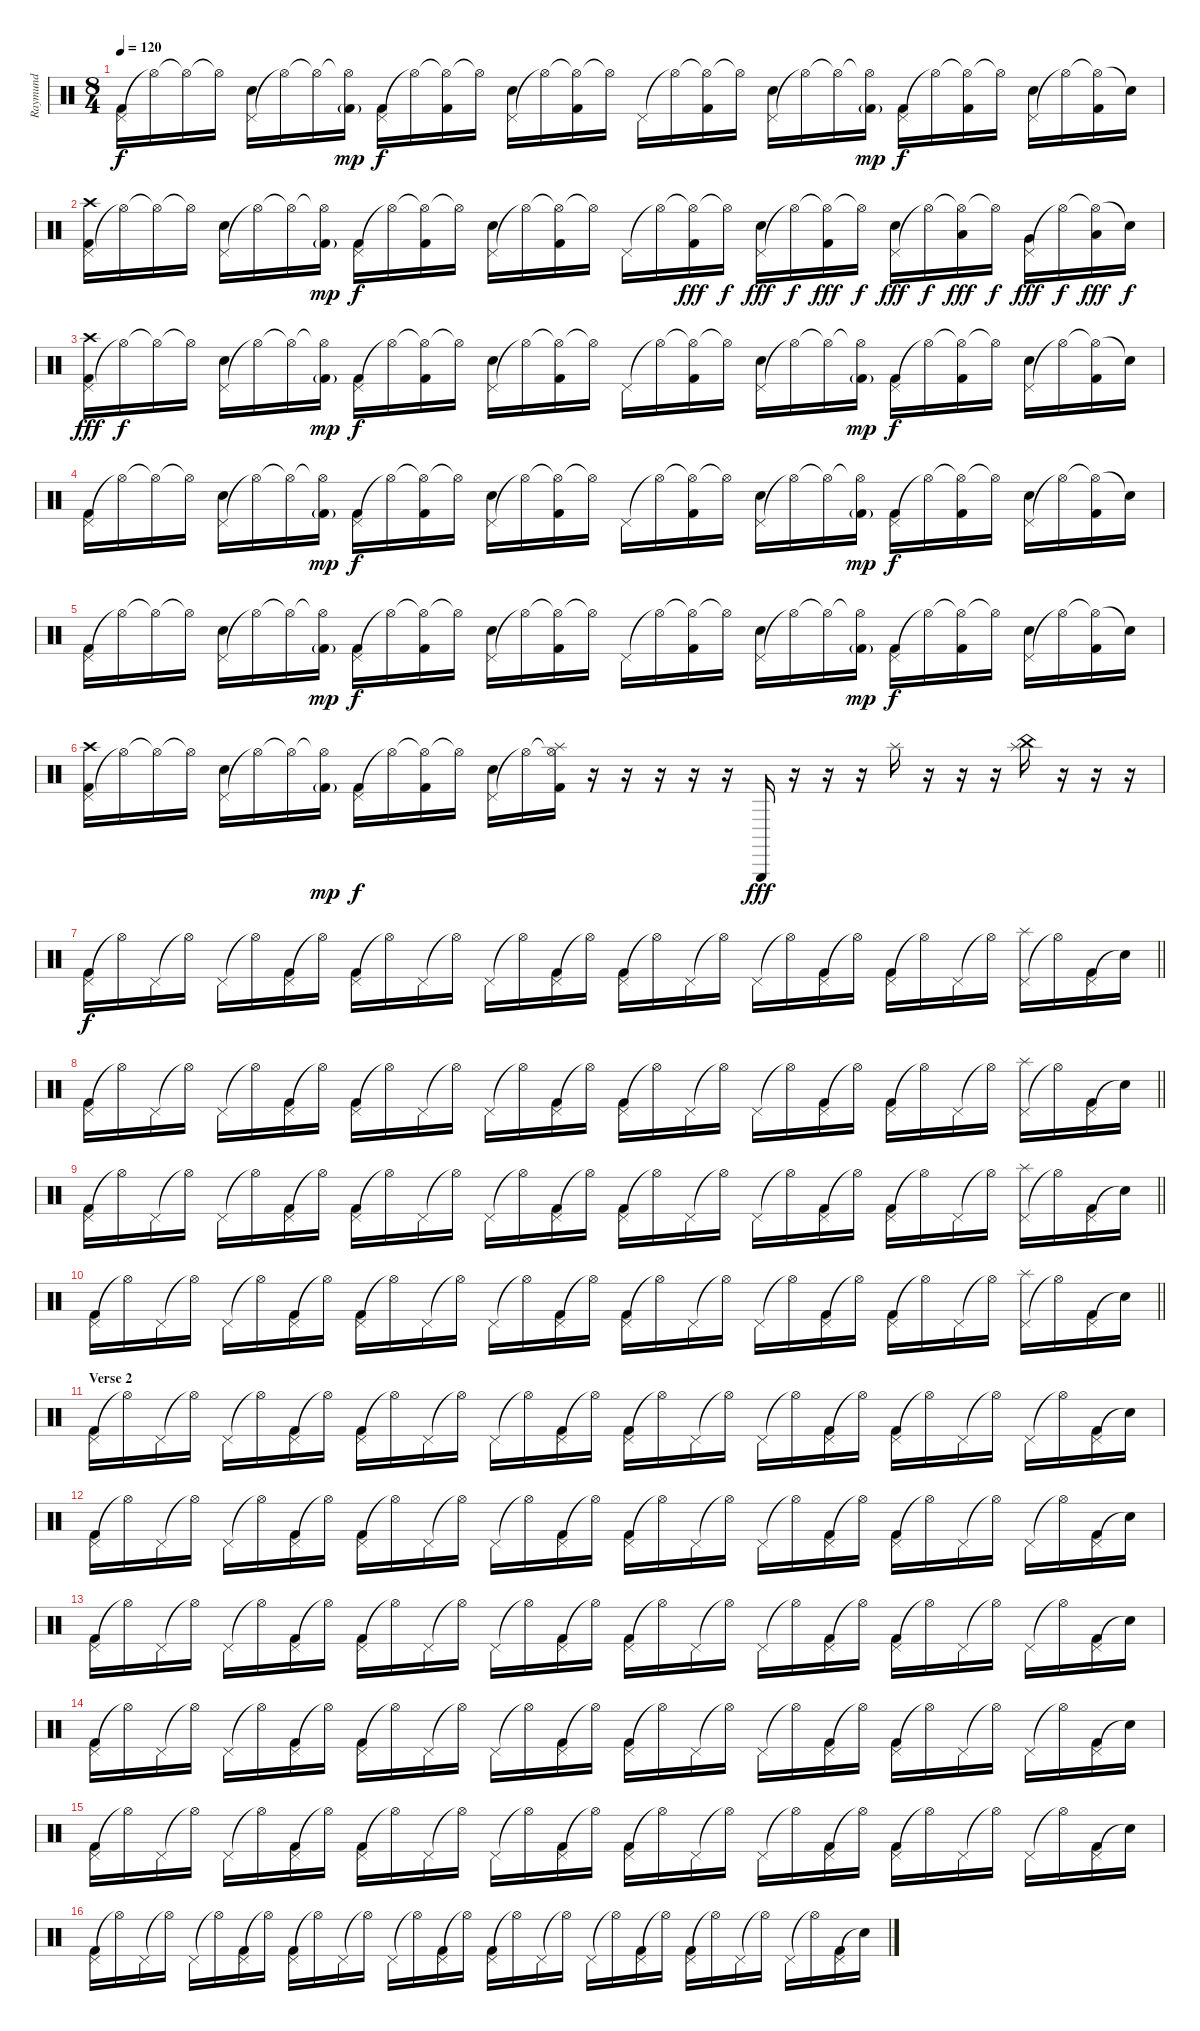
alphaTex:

\track ("Raymund" "Raymund") {instrument percussion}
\staff {score}
\articulation defaults
\ts (8 4)
\tempo 120
\clef neutral
\ks c
("Pedal Hi-Hat (hit)" "Kick (hit) 2").16{dy f} "Hi-Hat (open)"{t}.16 "Hi-Hat (open)"{t}.16 "Hi-Hat (open)"{t}.16 ("Pedal Hi-Hat (hit)" "Snare (hit) 2").16 "Hi-Hat (open)"{t}.16 "Hi-Hat (open)"{t}.16 ("Hi-Hat (open)"{t} "Kick (hit) 2"{g}).16{dy mp} ("Pedal Hi-Hat (hit)" "Kick (hit) 2").16{dy f} "Hi-Hat (open)"{t}.16 ("Hi-Hat (open)"{t} "Kick (hit) 2").16 "Hi-Hat (open)"{t}.16 ("Pedal Hi-Hat (hit)" "Snare (hit) 2").16 "Hi-Hat (open)"{t}.16 ("Hi-Hat (open)"{t} "Kick (hit) 2").16 "Hi-Hat (open)"{t}.16 "Pedal Hi-Hat (hit)".16 "Hi-Hat (open)"{t}.16 ("Hi-Hat (open)"{t} "Kick (hit) 2").16 "Hi-Hat (open)"{t}.16 ("Pedal Hi-Hat (hit)" "Snare (hit) 2").16 "Hi-Hat (open)"{t}.16 "Hi-Hat (open)"{t}.16 ("Hi-Hat (open)"{t} "Kick (hit) 2"{g}).16{dy mp} ("Pedal Hi-Hat (hit)" "Kick (hit) 2").16{dy f} "Hi-Hat (open)"{t}.16 ("Hi-Hat (open)"{t} "Kick (hit) 2").16 "Hi-Hat (open)"{t}.16 ("Pedal Hi-Hat (hit)" "Snare (hit) 2").16 "Hi-Hat (open)"{t}.16 ("Hi-Hat (open)"{t} "Kick (hit) 2").16 "Snare (hit)"{t}.16 |
("Pedal Hi-Hat (hit)" "Kick (hit) 2" "Crash high (hit)").16 "Hi-Hat (open)"{t}.16 "Hi-Hat (open)"{t}.16 "Hi-Hat (open)"{t}.16 ("Pedal Hi-Hat (hit)" "Snare (hit) 2").16 "Hi-Hat (open)"{t}.16 "Hi-Hat (open)"{t}.16 ("Hi-Hat (open)"{t} "Kick (hit) 2"{g}).16{dy mp} ("Pedal Hi-Hat (hit)" "Kick (hit) 2").16{dy f} "Hi-Hat (open)"{t}.16 ("Hi-Hat (open)"{t} "Kick (hit) 2").16 "Hi-Hat (open)"{t}.16 ("Pedal Hi-Hat (hit)" "Snare (hit) 2").16 "Hi-Hat (open)"{t}.16 ("Hi-Hat (open)"{t} "Kick (hit) 2").16 "Hi-Hat (open)"{t}.16 "Pedal Hi-Hat (hit)".16 "Hi-Hat (open)"{t}.16 ("Hi-Hat (open)"{t} "Kick (hit) 2").16{dy fff} "Hi-Hat (open)"{t}.16{dy f} ("Pedal Hi-Hat (hit)" "Snare (hit) 2").16{dy fff} "Hi-Hat (open)"{t}.16{dy f} ("Hi-Hat (open)"{t} "Kick (hit) 2").16{dy fff} "Hi-Hat (open)"{t}.16{dy f} ("Pedal Hi-Hat (hit)" "Snare (hit) 2").16{dy fff} "Hi-Hat (open)"{t}.16{dy f} ("Hi-Hat (open)"{t} "Low Tom (hit)").16{dy fff} "Hi-Hat (open)"{t}.16{dy f} ("Pedal Hi-Hat (hit)" "Very Low Tom (hit)").16{dy fff} "Hi-Hat (open)"{t}.16{dy f} ("Hi-Hat (open)"{t} "Low Tom (hit)").16{dy fff} "Snare (hit)"{t}.16{dy f} |
("Pedal Hi-Hat (hit)" "Kick (hit) 2" "Crash high (hit)").16{dy fff} "Hi-Hat (open)"{t}.16{dy f} "Hi-Hat (open)"{t}.16 "Hi-Hat (open)"{t}.16 ("Pedal Hi-Hat (hit)" "Snare (hit) 2").16 "Hi-Hat (open)"{t}.16 "Hi-Hat (open)"{t}.16 ("Hi-Hat (open)"{t} "Kick (hit) 2"{g}).16{dy mp} ("Pedal Hi-Hat (hit)" "Kick (hit) 2").16{dy f} "Hi-Hat (open)"{t}.16 ("Hi-Hat (open)"{t} "Kick (hit) 2").16 "Hi-Hat (open)"{t}.16 ("Pedal Hi-Hat (hit)" "Snare (hit) 2").16 "Hi-Hat (open)"{t}.16 ("Hi-Hat (open)"{t} "Kick (hit) 2").16 "Hi-Hat (open)"{t}.16 "Pedal Hi-Hat (hit)".16 "Hi-Hat (open)"{t}.16 ("Hi-Hat (open)"{t} "Kick (hit) 2").16 "Hi-Hat (open)"{t}.16 ("Pedal Hi-Hat (hit)" "Snare (hit) 2").16 "Hi-Hat (open)"{t}.16 "Hi-Hat (open)"{t}.16 ("Hi-Hat (open)"{t} "Kick (hit) 2"{g}).16{dy mp} ("Pedal Hi-Hat (hit)" "Kick (hit) 2").16{dy f} "Hi-Hat (open)"{t}.16 ("Hi-Hat (open)"{t} "Kick (hit) 2").16 "Hi-Hat (open)"{t}.16 ("Pedal Hi-Hat (hit)" "Snare (hit) 2").16 "Hi-Hat (open)"{t}.16 ("Hi-Hat (open)"{t} "Kick (hit) 2").16 "Snare (hit)"{t}.16 |
("Pedal Hi-Hat (hit)" "Kick (hit) 2").16 "Hi-Hat (open)"{t}.16 "Hi-Hat (open)"{t}.16 "Hi-Hat (open)"{t}.16 ("Pedal Hi-Hat (hit)" "Snare (hit) 2").16 "Hi-Hat (open)"{t}.16 "Hi-Hat (open)"{t}.16 ("Hi-Hat (open)"{t} "Kick (hit) 2"{g}).16{dy mp} ("Pedal Hi-Hat (hit)" "Kick (hit) 2").16{dy f} "Hi-Hat (open)"{t}.16 ("Hi-Hat (open)"{t} "Kick (hit) 2").16 "Hi-Hat (open)"{t}.16 ("Pedal Hi-Hat (hit)" "Snare (hit) 2").16 "Hi-Hat (open)"{t}.16 ("Hi-Hat (open)"{t} "Kick (hit) 2").16 "Hi-Hat (open)"{t}.16 "Pedal Hi-Hat (hit)".16 "Hi-Hat (open)"{t}.16 ("Hi-Hat (open)"{t} "Kick (hit) 2").16 "Hi-Hat (open)"{t}.16 ("Pedal Hi-Hat (hit)" "Snare (hit) 2").16 "Hi-Hat (open)"{t}.16 "Hi-Hat (open)"{t}.16 ("Hi-Hat (open)"{t} "Kick (hit) 2"{g}).16{dy mp} ("Pedal Hi-Hat (hit)" "Kick (hit) 2").16{dy f} "Hi-Hat (open)"{t}.16 ("Hi-Hat (open)"{t} "Kick (hit) 2").16 "Hi-Hat (open)"{t}.16 ("Pedal Hi-Hat (hit)" "Snare (hit) 2").16 "Hi-Hat (open)"{t}.16 ("Hi-Hat (open)"{t} "Kick (hit) 2").16 "Snare (hit)"{t}.16 |
("Pedal Hi-Hat (hit)" "Kick (hit) 2").16 "Hi-Hat (open)"{t}.16 "Hi-Hat (open)"{t}.16 "Hi-Hat (open)"{t}.16 ("Pedal Hi-Hat (hit)" "Snare (hit) 2").16 "Hi-Hat (open)"{t}.16 "Hi-Hat (open)"{t}.16 ("Hi-Hat (open)"{t} "Kick (hit) 2"{g}).16{dy mp} ("Pedal Hi-Hat (hit)" "Kick (hit) 2").16{dy f} "Hi-Hat (open)"{t}.16 ("Hi-Hat (open)"{t} "Kick (hit) 2").16 "Hi-Hat (open)"{t}.16 ("Pedal Hi-Hat (hit)" "Snare (hit) 2").16 "Hi-Hat (open)"{t}.16 ("Hi-Hat (open)"{t} "Kick (hit) 2").16 "Hi-Hat (open)"{t}.16 "Pedal Hi-Hat (hit)".16 "Hi-Hat (open)"{t}.16 ("Hi-Hat (open)"{t} "Kick (hit) 2").16 "Hi-Hat (open)"{t}.16 ("Pedal Hi-Hat (hit)" "Snare (hit) 2").16 "Hi-Hat (open)"{t}.16 "Hi-Hat (open)"{t}.16 ("Hi-Hat (open)"{t} "Kick (hit) 2"{g}).16{dy mp} ("Pedal Hi-Hat (hit)" "Kick (hit) 2").16{dy f} "Hi-Hat (open)"{t}.16 ("Hi-Hat (open)"{t} "Kick (hit) 2").16 "Hi-Hat (open)"{t}.16 ("Pedal Hi-Hat (hit)" "Snare (hit) 2").16 "Hi-Hat (open)"{t}.16 ("Hi-Hat (open)"{t} "Kick (hit) 2").16 "Snare (hit)"{t}.16 |
("Pedal Hi-Hat (hit)" "Kick (hit) 2" "Crash high (hit)").16 "Hi-Hat (open)"{t}.16 "Hi-Hat (open)"{t}.16 "Hi-Hat (open)"{t}.16 ("Pedal Hi-Hat (hit)" "Snare (hit) 2").16 "Hi-Hat (open)"{t}.16 "Hi-Hat (open)"{t}.16 ("Hi-Hat (open)"{t} "Kick (hit) 2"{g}).16{dy mp} ("Pedal Hi-Hat (hit)" "Kick (hit) 2").16{dy f} "Hi-Hat (open)"{t}.16 ("Hi-Hat (open)"{t} "Kick (hit) 2").16 "Hi-Hat (open)"{t}.16 ("Pedal Hi-Hat (hit)" "Snare (hit) 2").16 "Hi-Hat (open)"{t}.16 ("Hi-Hat (open)"{t} "Kick (hit) 2" "Splash (hit)").16 r.16 r.16 r.16 r.16 r.16 "Triangle (hit)".16{dy fff} r.16 r.16 r.16 "Splash (hit)".16 r.16 r.16 r.16 ("Splash (hit)" "China (hit)").16 r.16 r.16 r.16 |
\barLineRight lightlight
("Pedal Hi-Hat (hit)" "Kick (hit) 2").16{dy f} "Hi-Hat (open)"{t}.16 "Pedal Hi-Hat (hit)".16 "Hi-Hat (open)"{t}.16 "Pedal Hi-Hat (hit)".16 "Hi-Hat (open)"{t}.16 ("Pedal Hi-Hat (hit)" "Kick (hit) 2").16 "Hi-Hat (open)"{t}.16 ("Pedal Hi-Hat (hit)" "Kick (hit) 2").16 "Hi-Hat (open)"{t}.16 "Pedal Hi-Hat (hit)".16 "Hi-Hat (open)"{t}.16 "Pedal Hi-Hat (hit)".16 "Hi-Hat (open)"{t}.16 ("Pedal Hi-Hat (hit)" "Kick (hit) 2").16 "Hi-Hat (open)"{t}.16 ("Pedal Hi-Hat (hit)" "Kick (hit) 2").16 "Hi-Hat (open)"{t}.16 "Pedal Hi-Hat (hit)".16 "Hi-Hat (open)"{t}.16 "Pedal Hi-Hat (hit)".16 "Hi-Hat (open)"{t}.16 ("Pedal Hi-Hat (hit)" "Kick (hit) 2").16 "Hi-Hat (open)"{t}.16 ("Pedal Hi-Hat (hit)" "Kick (hit) 2").16 "Hi-Hat (open)"{t}.16 "Pedal Hi-Hat (hit)".16 "Hi-Hat (open)"{t}.16 ("Pedal Hi-Hat (hit)" "Splash (hit)").16 "Hi-Hat (open)"{t}.16 ("Pedal Hi-Hat (hit)" "Kick (hit) 2").16 "Snare (hit)"{t}.16 |
\barLineRight lightlight
("Pedal Hi-Hat (hit)" "Kick (hit) 2").16 "Hi-Hat (open)"{t}.16 "Pedal Hi-Hat (hit)".16 "Hi-Hat (open)"{t}.16 "Pedal Hi-Hat (hit)".16 "Hi-Hat (open)"{t}.16 ("Pedal Hi-Hat (hit)" "Kick (hit) 2").16 "Hi-Hat (open)"{t}.16 ("Pedal Hi-Hat (hit)" "Kick (hit) 2").16 "Hi-Hat (open)"{t}.16 "Pedal Hi-Hat (hit)".16 "Hi-Hat (open)"{t}.16 "Pedal Hi-Hat (hit)".16 "Hi-Hat (open)"{t}.16 ("Pedal Hi-Hat (hit)" "Kick (hit) 2").16 "Hi-Hat (open)"{t}.16 ("Pedal Hi-Hat (hit)" "Kick (hit) 2").16 "Hi-Hat (open)"{t}.16 "Pedal Hi-Hat (hit)".16 "Hi-Hat (open)"{t}.16 "Pedal Hi-Hat (hit)".16 "Hi-Hat (open)"{t}.16 ("Pedal Hi-Hat (hit)" "Kick (hit) 2").16 "Hi-Hat (open)"{t}.16 ("Pedal Hi-Hat (hit)" "Kick (hit) 2").16 "Hi-Hat (open)"{t}.16 "Pedal Hi-Hat (hit)".16 "Hi-Hat (open)"{t}.16 ("Pedal Hi-Hat (hit)" "Splash (hit)").16 "Hi-Hat (open)"{t}.16 ("Pedal Hi-Hat (hit)" "Kick (hit) 2").16 "Snare (hit)"{t}.16 |
\barLineRight lightlight
("Pedal Hi-Hat (hit)" "Kick (hit) 2").16 "Hi-Hat (open)"{t}.16 "Pedal Hi-Hat (hit)".16 "Hi-Hat (open)"{t}.16 "Pedal Hi-Hat (hit)".16 "Hi-Hat (open)"{t}.16 ("Pedal Hi-Hat (hit)" "Kick (hit) 2").16 "Hi-Hat (open)"{t}.16 ("Pedal Hi-Hat (hit)" "Kick (hit) 2").16 "Hi-Hat (open)"{t}.16 "Pedal Hi-Hat (hit)".16 "Hi-Hat (open)"{t}.16 "Pedal Hi-Hat (hit)".16 "Hi-Hat (open)"{t}.16 ("Pedal Hi-Hat (hit)" "Kick (hit) 2").16 "Hi-Hat (open)"{t}.16 ("Pedal Hi-Hat (hit)" "Kick (hit) 2").16 "Hi-Hat (open)"{t}.16 "Pedal Hi-Hat (hit)".16 "Hi-Hat (open)"{t}.16 "Pedal Hi-Hat (hit)".16 "Hi-Hat (open)"{t}.16 ("Pedal Hi-Hat (hit)" "Kick (hit) 2").16 "Hi-Hat (open)"{t}.16 ("Pedal Hi-Hat (hit)" "Kick (hit) 2").16 "Hi-Hat (open)"{t}.16 "Pedal Hi-Hat (hit)".16 "Hi-Hat (open)"{t}.16 ("Pedal Hi-Hat (hit)" "Splash (hit)").16 "Hi-Hat (open)"{t}.16 ("Pedal Hi-Hat (hit)" "Kick (hit) 2").16 "Snare (hit)"{t}.16 |
\barLineRight lightlight
("Pedal Hi-Hat (hit)" "Kick (hit) 2").16 "Hi-Hat (open)"{t}.16 "Pedal Hi-Hat (hit)".16 "Hi-Hat (open)"{t}.16 "Pedal Hi-Hat (hit)".16 "Hi-Hat (open)"{t}.16 ("Pedal Hi-Hat (hit)" "Kick (hit) 2").16 "Hi-Hat (open)"{t}.16 ("Pedal Hi-Hat (hit)" "Kick (hit) 2").16 "Hi-Hat (open)"{t}.16 "Pedal Hi-Hat (hit)".16 "Hi-Hat (open)"{t}.16 "Pedal Hi-Hat (hit)".16 "Hi-Hat (open)"{t}.16 ("Pedal Hi-Hat (hit)" "Kick (hit) 2").16 "Hi-Hat (open)"{t}.16 ("Pedal Hi-Hat (hit)" "Kick (hit) 2").16 "Hi-Hat (open)"{t}.16 "Pedal Hi-Hat (hit)".16 "Hi-Hat (open)"{t}.16 "Pedal Hi-Hat (hit)".16 "Hi-Hat (open)"{t}.16 ("Pedal Hi-Hat (hit)" "Kick (hit) 2").16 "Hi-Hat (open)"{t}.16 ("Pedal Hi-Hat (hit)" "Kick (hit) 2").16 "Hi-Hat (open)"{t}.16 "Pedal Hi-Hat (hit)".16 "Hi-Hat (open)"{t}.16 ("Pedal Hi-Hat (hit)" "Splash (hit)").16 "Hi-Hat (open)"{t}.16 ("Pedal Hi-Hat (hit)" "Kick (hit) 2").16 "Snare (hit)"{t}.16 |
\section ("" "Verse 2")
("Pedal Hi-Hat (hit)" "Kick (hit) 2").16 "Hi-Hat (open)"{t}.16 "Pedal Hi-Hat (hit)".16 "Hi-Hat (open)"{t}.16 "Pedal Hi-Hat (hit)".16 "Hi-Hat (open)"{t}.16 ("Pedal Hi-Hat (hit)" "Kick (hit) 2").16 "Hi-Hat (open)"{t}.16 ("Pedal Hi-Hat (hit)" "Kick (hit) 2").16 "Hi-Hat (open)"{t}.16 "Pedal Hi-Hat (hit)".16 "Hi-Hat (open)"{t}.16 "Pedal Hi-Hat (hit)".16 "Hi-Hat (open)"{t}.16 ("Pedal Hi-Hat (hit)" "Kick (hit) 2").16 "Hi-Hat (open)"{t}.16 ("Pedal Hi-Hat (hit)" "Kick (hit) 2").16 "Hi-Hat (open)"{t}.16 "Pedal Hi-Hat (hit)".16 "Hi-Hat (open)"{t}.16 "Pedal Hi-Hat (hit)".16 "Hi-Hat (open)"{t}.16 ("Pedal Hi-Hat (hit)" "Kick (hit) 2").16 "Hi-Hat (open)"{t}.16 ("Pedal Hi-Hat (hit)" "Kick (hit) 2").16 "Hi-Hat (open)"{t}.16 "Pedal Hi-Hat (hit)".16 "Hi-Hat (open)"{t}.16 "Pedal Hi-Hat (hit)".16 "Hi-Hat (open)"{t}.16 ("Pedal Hi-Hat (hit)" "Kick (hit) 2").16 "Snare (hit)"{t}.16 |
("Pedal Hi-Hat (hit)" "Kick (hit) 2").16 "Hi-Hat (open)"{t}.16 "Pedal Hi-Hat (hit)".16 "Hi-Hat (open)"{t}.16 "Pedal Hi-Hat (hit)".16 "Hi-Hat (open)"{t}.16 ("Pedal Hi-Hat (hit)" "Kick (hit) 2").16 "Hi-Hat (open)"{t}.16 ("Pedal Hi-Hat (hit)" "Kick (hit) 2").16 "Hi-Hat (open)"{t}.16 "Pedal Hi-Hat (hit)".16 "Hi-Hat (open)"{t}.16 "Pedal Hi-Hat (hit)".16 "Hi-Hat (open)"{t}.16 ("Pedal Hi-Hat (hit)" "Kick (hit) 2").16 "Hi-Hat (open)"{t}.16 ("Pedal Hi-Hat (hit)" "Kick (hit) 2").16 "Hi-Hat (open)"{t}.16 "Pedal Hi-Hat (hit)".16 "Hi-Hat (open)"{t}.16 "Pedal Hi-Hat (hit)".16 "Hi-Hat (open)"{t}.16 ("Pedal Hi-Hat (hit)" "Kick (hit) 2").16 "Hi-Hat (open)"{t}.16 ("Pedal Hi-Hat (hit)" "Kick (hit) 2").16 "Hi-Hat (open)"{t}.16 "Pedal Hi-Hat (hit)".16 "Hi-Hat (open)"{t}.16 "Pedal Hi-Hat (hit)".16 "Hi-Hat (open)"{t}.16 ("Pedal Hi-Hat (hit)" "Kick (hit) 2").16 "Snare (hit)"{t}.16 |
("Pedal Hi-Hat (hit)" "Kick (hit) 2").16 "Hi-Hat (open)"{t}.16 "Pedal Hi-Hat (hit)".16 "Hi-Hat (open)"{t}.16 "Pedal Hi-Hat (hit)".16 "Hi-Hat (open)"{t}.16 ("Pedal Hi-Hat (hit)" "Kick (hit) 2").16 "Hi-Hat (open)"{t}.16 ("Pedal Hi-Hat (hit)" "Kick (hit) 2").16 "Hi-Hat (open)"{t}.16 "Pedal Hi-Hat (hit)".16 "Hi-Hat (open)"{t}.16 "Pedal Hi-Hat (hit)".16 "Hi-Hat (open)"{t}.16 ("Pedal Hi-Hat (hit)" "Kick (hit) 2").16 "Hi-Hat (open)"{t}.16 ("Pedal Hi-Hat (hit)" "Kick (hit) 2").16 "Hi-Hat (open)"{t}.16 "Pedal Hi-Hat (hit)".16 "Hi-Hat (open)"{t}.16 "Pedal Hi-Hat (hit)".16 "Hi-Hat (open)"{t}.16 ("Pedal Hi-Hat (hit)" "Kick (hit) 2").16 "Hi-Hat (open)"{t}.16 ("Pedal Hi-Hat (hit)" "Kick (hit) 2").16 "Hi-Hat (open)"{t}.16 "Pedal Hi-Hat (hit)".16 "Hi-Hat (open)"{t}.16 "Pedal Hi-Hat (hit)".16 "Hi-Hat (open)"{t}.16 ("Pedal Hi-Hat (hit)" "Kick (hit) 2").16 "Snare (hit)"{t}.16 |
("Pedal Hi-Hat (hit)" "Kick (hit) 2").16 "Hi-Hat (open)"{t}.16 "Pedal Hi-Hat (hit)".16 "Hi-Hat (open)"{t}.16 "Pedal Hi-Hat (hit)".16 "Hi-Hat (open)"{t}.16 ("Pedal Hi-Hat (hit)" "Kick (hit) 2").16 "Hi-Hat (open)"{t}.16 ("Pedal Hi-Hat (hit)" "Kick (hit) 2").16 "Hi-Hat (open)"{t}.16 "Pedal Hi-Hat (hit)".16 "Hi-Hat (open)"{t}.16 "Pedal Hi-Hat (hit)".16 "Hi-Hat (open)"{t}.16 ("Pedal Hi-Hat (hit)" "Kick (hit) 2").16 "Hi-Hat (open)"{t}.16 ("Pedal Hi-Hat (hit)" "Kick (hit) 2").16 "Hi-Hat (open)"{t}.16 "Pedal Hi-Hat (hit)".16 "Hi-Hat (open)"{t}.16 "Pedal Hi-Hat (hit)".16 "Hi-Hat (open)"{t}.16 ("Pedal Hi-Hat (hit)" "Kick (hit) 2").16 "Hi-Hat (open)"{t}.16 ("Pedal Hi-Hat (hit)" "Kick (hit) 2").16 "Hi-Hat (open)"{t}.16 "Pedal Hi-Hat (hit)".16 "Hi-Hat (open)"{t}.16 "Pedal Hi-Hat (hit)".16 "Hi-Hat (open)"{t}.16 ("Pedal Hi-Hat (hit)" "Kick (hit) 2").16 "Snare (hit)"{t}.16 |
("Pedal Hi-Hat (hit)" "Kick (hit) 2").16 "Hi-Hat (open)"{t}.16 "Pedal Hi-Hat (hit)".16 "Hi-Hat (open)"{t}.16 "Pedal Hi-Hat (hit)".16 "Hi-Hat (open)"{t}.16 ("Pedal Hi-Hat (hit)" "Kick (hit) 2").16 "Hi-Hat (open)"{t}.16 ("Pedal Hi-Hat (hit)" "Kick (hit) 2").16 "Hi-Hat (open)"{t}.16 "Pedal Hi-Hat (hit)".16 "Hi-Hat (open)"{t}.16 "Pedal Hi-Hat (hit)".16 "Hi-Hat (open)"{t}.16 ("Pedal Hi-Hat (hit)" "Kick (hit) 2").16 "Hi-Hat (open)"{t}.16 ("Pedal Hi-Hat (hit)" "Kick (hit) 2").16 "Hi-Hat (open)"{t}.16 "Pedal Hi-Hat (hit)".16 "Hi-Hat (open)"{t}.16 "Pedal Hi-Hat (hit)".16 "Hi-Hat (open)"{t}.16 ("Pedal Hi-Hat (hit)" "Kick (hit) 2").16 "Hi-Hat (open)"{t}.16 ("Pedal Hi-Hat (hit)" "Kick (hit) 2").16 "Hi-Hat (open)"{t}.16 "Pedal Hi-Hat (hit)".16 "Hi-Hat (open)"{t}.16 "Pedal Hi-Hat (hit)".16 "Hi-Hat (open)"{t}.16 ("Pedal Hi-Hat (hit)" "Kick (hit) 2").16 "Snare (hit)"{t}.16 |
("Pedal Hi-Hat (hit)" "Kick (hit) 2").16 "Hi-Hat (open)"{t}.16 "Pedal Hi-Hat (hit)".16 "Hi-Hat (open)"{t}.16 "Pedal Hi-Hat (hit)".16 "Hi-Hat (open)"{t}.16 ("Pedal Hi-Hat (hit)" "Kick (hit) 2").16 "Hi-Hat (open)"{t}.16 ("Pedal Hi-Hat (hit)" "Kick (hit) 2").16 "Hi-Hat (open)"{t}.16 "Pedal Hi-Hat (hit)".16 "Hi-Hat (open)"{t}.16 "Pedal Hi-Hat (hit)".16 "Hi-Hat (open)"{t}.16 ("Pedal Hi-Hat (hit)" "Kick (hit) 2").16 "Hi-Hat (open)"{t}.16 ("Pedal Hi-Hat (hit)" "Kick (hit) 2").16 "Hi-Hat (open)"{t}.16 "Pedal Hi-Hat (hit)".16 "Hi-Hat (open)"{t}.16 "Pedal Hi-Hat (hit)".16 "Hi-Hat (open)"{t}.16 ("Pedal Hi-Hat (hit)" "Kick (hit) 2").16 "Hi-Hat (open)"{t}.16 ("Pedal Hi-Hat (hit)" "Kick (hit) 2").16 "Hi-Hat (open)"{t}.16 "Pedal Hi-Hat (hit)".16 "Hi-Hat (open)"{t}.16 "Pedal Hi-Hat (hit)".16 "Hi-Hat (open)"{t}.16 ("Pedal Hi-Hat (hit)" "Kick (hit) 2").16 "Snare (hit)"{t}.16
